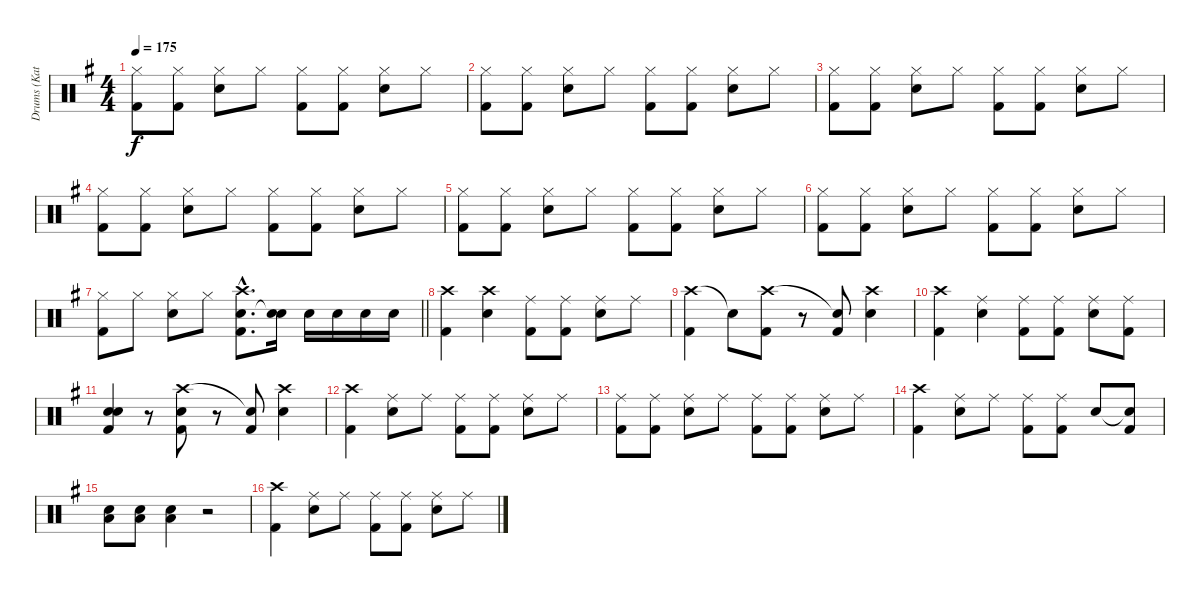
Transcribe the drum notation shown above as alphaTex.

\track ("Drums (Katsuji)" "Drums (Kat") {instrument percussion}
\staff {score}
\articulation defaults
\ts (4 4)
\tempo 175
\clef neutral
\ks g
("Hi-Hat (closed)" "Kick (hit) 2").8{dy f} ("Hi-Hat (closed)" "Kick (hit) 2").8 ("Hi-Hat (closed)" "Snare (hit) 2").8 "Hi-Hat (closed)".8 ("Hi-Hat (closed)" "Kick (hit) 2").8 ("Hi-Hat (closed)" "Kick (hit) 2").8 ("Hi-Hat (closed)" "Snare (hit) 2").8 "Hi-Hat (closed)".8 |
("Hi-Hat (closed)" "Kick (hit) 2").8 ("Hi-Hat (closed)" "Kick (hit) 2").8 ("Hi-Hat (closed)" "Snare (hit) 2").8 "Hi-Hat (closed)".8 ("Hi-Hat (closed)" "Kick (hit) 2").8 ("Hi-Hat (closed)" "Kick (hit) 2").8 ("Hi-Hat (closed)" "Snare (hit) 2").8 "Hi-Hat (closed)".8 |
("Hi-Hat (closed)" "Kick (hit) 2").8 ("Hi-Hat (closed)" "Kick (hit) 2").8 ("Hi-Hat (closed)" "Snare (hit) 2").8 "Hi-Hat (closed)".8 ("Hi-Hat (closed)" "Kick (hit) 2").8 ("Hi-Hat (closed)" "Kick (hit) 2").8 ("Hi-Hat (closed)" "Snare (hit) 2").8 "Hi-Hat (closed)".8 |
("Hi-Hat (closed)" "Kick (hit) 2").8 ("Hi-Hat (closed)" "Kick (hit) 2").8 ("Hi-Hat (closed)" "Snare (hit) 2").8 "Hi-Hat (closed)".8 ("Hi-Hat (closed)" "Kick (hit) 2").8 ("Hi-Hat (closed)" "Kick (hit) 2").8 ("Hi-Hat (closed)" "Snare (hit) 2").8 "Hi-Hat (closed)".8 |
("Hi-Hat (closed)" "Kick (hit) 2").8 ("Hi-Hat (closed)" "Kick (hit) 2").8 ("Hi-Hat (closed)" "Snare (hit) 2").8 "Hi-Hat (closed)".8 ("Hi-Hat (closed)" "Kick (hit) 2").8 ("Hi-Hat (closed)" "Kick (hit) 2").8 ("Hi-Hat (closed)" "Snare (hit) 2").8 "Hi-Hat (closed)".8 |
("Hi-Hat (closed)" "Kick (hit) 2").8 ("Hi-Hat (closed)" "Kick (hit) 2").8 ("Hi-Hat (closed)" "Snare (hit) 2").8 "Hi-Hat (closed)".8 ("Hi-Hat (closed)" "Kick (hit) 2").8 ("Hi-Hat (closed)" "Kick (hit) 2").8 ("Hi-Hat (closed)" "Snare (hit) 2").8 "Hi-Hat (closed)".8 |
\barLineRight lightlight
("Hi-Hat (closed)" "Kick (hit) 2").8 "Hi-Hat (closed)".8 ("Hi-Hat (closed)" "Snare (hit) 2").8 "Hi-Hat (closed)".8 ("Crash high (hit)"{hac} "Snare (hit) 2"{hac} "Kick (hit) 2"{hac}).8{d} ("Snare (hit) 2" "Snare (hit)"{t}).16 "Snare (hit) 2".16 "Snare (hit) 2".16 "Snare (hit) 2".16 "Snare (hit) 2".16 |
("Crash high (hit)" "Kick (hit) 2").4 ("Crash high (hit)" "Snare (hit) 2").4 ("Ride (middle)" "Kick (hit) 2").8 ("Ride (middle)" "Kick (hit) 2").8 ("Ride (middle)" "Snare (hit) 2").8 "Ride (middle)".8 |
("Crash high (hit)" "Kick (hit) 2").4 "Snare (hit)"{t}.8 ("Crash high (hit)" "Kick (hit) 2").8 r.8 ("Snare (hit)"{t} "Kick (hit) 2").8 ("Crash high (hit)" "Snare (hit) 2").4 |
("Crash high (hit)" "Kick (hit) 2").4 ("Ride (middle)" "Snare (hit) 2").4 ("Ride (middle)" "Kick (hit) 2").8 ("Ride (middle)" "Kick (hit) 2").8 ("Ride (middle)" "Snare (hit) 2").8 ("Ride (middle)" "Kick (hit) 2").8 |
("Snare (hit) 2" "Snare (hit) 2" "Kick (hit) 2").4 r.8 ("Crash high (hit)" "Snare (hit) 2" "Kick (hit) 2").8 r.8 ("Snare (hit)"{t} "Kick (hit) 2").8 ("Crash high (hit)" "Snare (hit) 2").4 |
("Crash high (hit)" "Kick (hit) 2").4 ("Ride (middle)" "Snare (hit) 2").8 "Ride (middle)".8 ("Ride (middle)" "Kick (hit) 2").8 ("Ride (middle)" "Kick (hit) 2").8 ("Ride (middle)" "Snare (hit) 2").8 "Ride (middle)".8 |
("Ride (middle)" "Kick (hit) 2").8 ("Ride (middle)" "Kick (hit) 2").8 ("Ride (middle)" "Snare (hit) 2").8 "Ride (middle)".8 ("Ride (middle)" "Kick (hit) 2").8 ("Ride (middle)" "Kick (hit) 2").8 ("Ride (middle)" "Snare (hit) 2").8 "Ride (middle)".8 |
("Crash high (hit)" "Kick (hit) 2").4 ("Ride (middle)" "Snare (hit) 2").8 "Ride (middle)".8 ("Ride (middle)" "Kick (hit) 2").8 ("Ride (middle)" "Kick (hit) 2").8 "Snare (hit) 2".8 ("Snare (hit)"{t} "Kick (hit) 2").8 |
("Snare (hit) 2" "Low Tom (hit)").8 ("Snare (hit) 2" "Low Tom (hit)").8 ("Snare (hit) 2" "Low Tom (hit)").4 r.2 |
("Crash high (hit)" "Kick (hit) 2").4 ("Ride (middle)" "Snare (hit) 2").8 "Ride (middle)".8 ("Ride (middle)" "Kick (hit) 2").8 ("Ride (middle)" "Kick (hit) 2").8 ("Ride (middle)" "Snare (hit) 2").8 "Ride (middle)".8
